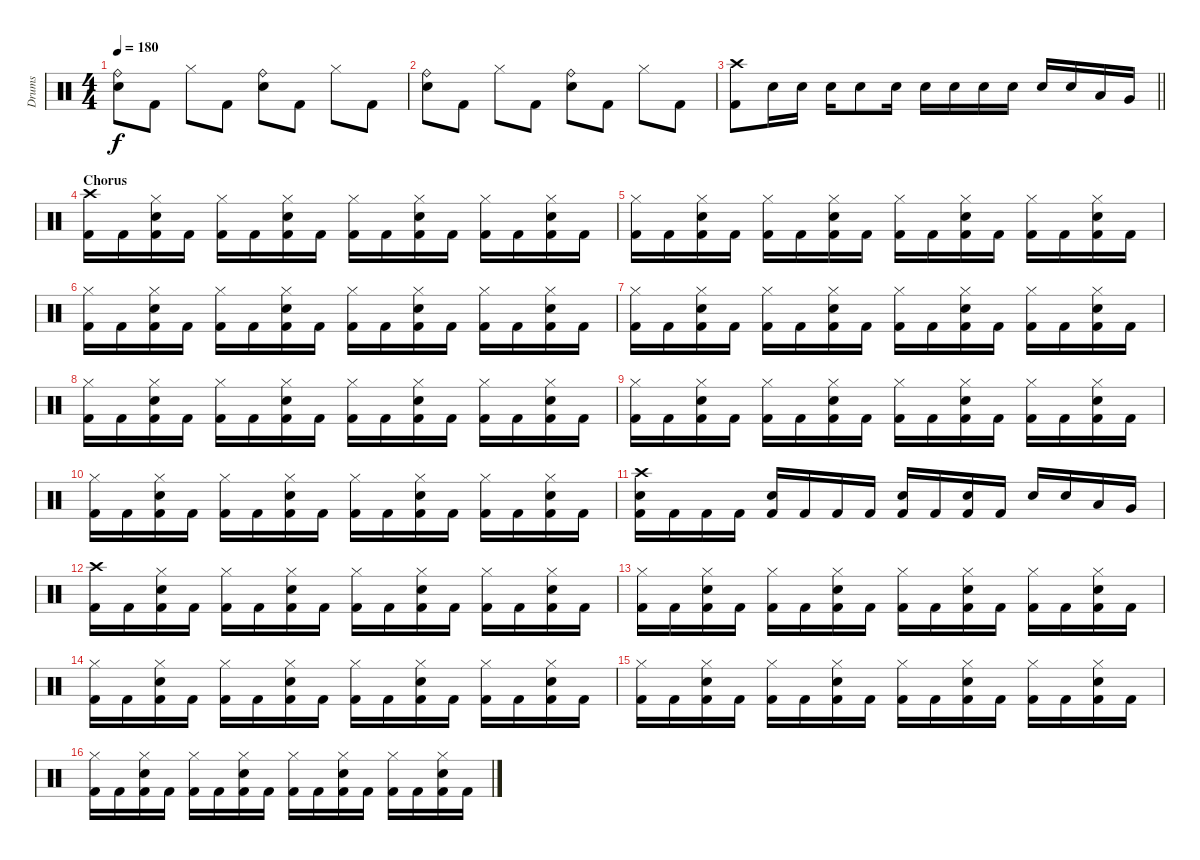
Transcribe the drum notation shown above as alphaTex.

\track ("Drums " "Drums ") {instrument percussion}
\staff {score}
\articulation defaults
\ts (4 4)
\tempo 180
\clef neutral
\ks c
("Ride (bell)" "Electric Snare (hit)").8{dy f} "Kick (hit) 2".8 "Hi-Hat (closed)".8 "Kick (hit) 2".8 ("Ride (bell)" "Electric Snare (hit)").8 "Kick (hit) 2".8 "Hi-Hat (closed)".8 "Kick (hit) 2".8 |
("Ride (bell)" "Electric Snare (hit)").8 "Kick (hit) 2".8 "Hi-Hat (closed)".8 "Kick (hit) 2".8 ("Ride (bell)" "Electric Snare (hit)").8 "Kick (hit) 2".8 "Hi-Hat (closed)".8 "Kick (hit) 2".8 |
\barLineRight lightlight
("Kick (hit) 2" "Crash high (hit)").8 "Electric Snare (hit)".16 "Electric Snare (hit)".16 "Electric Snare (hit)".16 "Electric Snare (hit)".8 "Electric Snare (hit)".16 "Electric Snare (hit)".16 "Electric Snare (hit)".16 "Electric Snare (hit)".16 "Electric Snare (hit)".16 "Electric Snare (hit)".16 "Electric Snare (hit)".16 "Low Tom (hit)".16 "Very Low Tom (hit)".16 |
\section ("" "Chorus")
("Kick (hit) 2" "Crash high (hit)").16 "Kick (hit) 2".16 ("Kick (hit) 2" "Hi-Hat (closed)" "Electric Snare (hit)").16 "Kick (hit) 2".16 ("Kick (hit) 2" "Hi-Hat (closed)").16 "Kick (hit) 2".16 ("Kick (hit) 2" "Hi-Hat (closed)" "Electric Snare (hit)").16 "Kick (hit) 2".16 ("Kick (hit) 2" "Hi-Hat (closed)").16 "Kick (hit) 2".16 ("Kick (hit) 2" "Hi-Hat (closed)" "Electric Snare (hit)").16 "Kick (hit) 2".16 ("Kick (hit) 2" "Hi-Hat (closed)").16 "Kick (hit) 2".16 ("Kick (hit) 2" "Hi-Hat (closed)" "Electric Snare (hit)").16 "Kick (hit) 2".16 |
("Kick (hit) 2" "Hi-Hat (closed)").16 "Kick (hit) 2".16 ("Kick (hit) 2" "Hi-Hat (closed)" "Electric Snare (hit)").16 "Kick (hit) 2".16 ("Kick (hit) 2" "Hi-Hat (closed)").16 "Kick (hit) 2".16 ("Kick (hit) 2" "Hi-Hat (closed)" "Electric Snare (hit)").16 "Kick (hit) 2".16 ("Kick (hit) 2" "Hi-Hat (closed)").16 "Kick (hit) 2".16 ("Kick (hit) 2" "Hi-Hat (closed)" "Electric Snare (hit)").16 "Kick (hit) 2".16 ("Kick (hit) 2" "Hi-Hat (closed)").16 "Kick (hit) 2".16 ("Kick (hit) 2" "Hi-Hat (closed)" "Electric Snare (hit)").16 "Kick (hit) 2".16 |
("Kick (hit) 2" "Hi-Hat (closed)").16 "Kick (hit) 2".16 ("Kick (hit) 2" "Hi-Hat (closed)" "Electric Snare (hit)").16 "Kick (hit) 2".16 ("Kick (hit) 2" "Hi-Hat (closed)").16 "Kick (hit) 2".16 ("Kick (hit) 2" "Hi-Hat (closed)" "Electric Snare (hit)").16 "Kick (hit) 2".16 ("Kick (hit) 2" "Hi-Hat (closed)").16 "Kick (hit) 2".16 ("Kick (hit) 2" "Hi-Hat (closed)" "Electric Snare (hit)").16 "Kick (hit) 2".16 ("Kick (hit) 2" "Hi-Hat (closed)").16 "Kick (hit) 2".16 ("Kick (hit) 2" "Hi-Hat (closed)" "Electric Snare (hit)").16 "Kick (hit) 2".16 |
("Kick (hit) 2" "Hi-Hat (closed)").16 "Kick (hit) 2".16 ("Kick (hit) 2" "Hi-Hat (closed)" "Electric Snare (hit)").16 "Kick (hit) 2".16 ("Kick (hit) 2" "Hi-Hat (closed)").16 "Kick (hit) 2".16 ("Kick (hit) 2" "Hi-Hat (closed)" "Electric Snare (hit)").16 "Kick (hit) 2".16 ("Kick (hit) 2" "Hi-Hat (closed)").16 "Kick (hit) 2".16 ("Kick (hit) 2" "Hi-Hat (closed)" "Electric Snare (hit)").16 "Kick (hit) 2".16 ("Kick (hit) 2" "Hi-Hat (closed)").16 "Kick (hit) 2".16 ("Kick (hit) 2" "Hi-Hat (closed)" "Electric Snare (hit)").16 "Kick (hit) 2".16 |
("Kick (hit) 2" "Hi-Hat (closed)").16 "Kick (hit) 2".16 ("Kick (hit) 2" "Hi-Hat (closed)" "Electric Snare (hit)").16 "Kick (hit) 2".16 ("Kick (hit) 2" "Hi-Hat (closed)").16 "Kick (hit) 2".16 ("Kick (hit) 2" "Hi-Hat (closed)" "Electric Snare (hit)").16 "Kick (hit) 2".16 ("Kick (hit) 2" "Hi-Hat (closed)").16 "Kick (hit) 2".16 ("Kick (hit) 2" "Hi-Hat (closed)" "Electric Snare (hit)").16 "Kick (hit) 2".16 ("Kick (hit) 2" "Hi-Hat (closed)").16 "Kick (hit) 2".16 ("Kick (hit) 2" "Hi-Hat (closed)" "Electric Snare (hit)").16 "Kick (hit) 2".16 |
("Kick (hit) 2" "Hi-Hat (closed)").16 "Kick (hit) 2".16 ("Kick (hit) 2" "Hi-Hat (closed)" "Electric Snare (hit)").16 "Kick (hit) 2".16 ("Kick (hit) 2" "Hi-Hat (closed)").16 "Kick (hit) 2".16 ("Kick (hit) 2" "Hi-Hat (closed)" "Electric Snare (hit)").16 "Kick (hit) 2".16 ("Kick (hit) 2" "Hi-Hat (closed)").16 "Kick (hit) 2".16 ("Kick (hit) 2" "Hi-Hat (closed)" "Electric Snare (hit)").16 "Kick (hit) 2".16 ("Kick (hit) 2" "Hi-Hat (closed)").16 "Kick (hit) 2".16 ("Kick (hit) 2" "Hi-Hat (closed)" "Electric Snare (hit)").16 "Kick (hit) 2".16 |
("Kick (hit) 2" "Hi-Hat (closed)").16 "Kick (hit) 2".16 ("Kick (hit) 2" "Hi-Hat (closed)" "Electric Snare (hit)").16 "Kick (hit) 2".16 ("Kick (hit) 2" "Hi-Hat (closed)").16 "Kick (hit) 2".16 ("Kick (hit) 2" "Hi-Hat (closed)" "Electric Snare (hit)").16 "Kick (hit) 2".16 ("Kick (hit) 2" "Hi-Hat (closed)").16 "Kick (hit) 2".16 ("Kick (hit) 2" "Hi-Hat (closed)" "Electric Snare (hit)").16 "Kick (hit) 2".16 ("Kick (hit) 2" "Hi-Hat (closed)").16 "Kick (hit) 2".16 ("Kick (hit) 2" "Hi-Hat (closed)" "Electric Snare (hit)").16 "Kick (hit) 2".16 |
("Kick (hit) 2" "Crash high (hit)" "Electric Snare (hit)").16 "Kick (hit) 2".16 "Kick (hit) 2".16 "Kick (hit) 2".16 ("Kick (hit) 2" "Electric Snare (hit)").16 "Kick (hit) 2".16 "Kick (hit) 2".16 "Kick (hit) 2".16 ("Kick (hit) 2" "Electric Snare (hit)").16 "Kick (hit) 2".16 ("Kick (hit) 2" "Electric Snare (hit)").16 "Kick (hit) 2".16 "Electric Snare (hit)".16 "Electric Snare (hit)".16 "Low Tom (hit)".16 "Very Low Tom (hit)".16 |
("Kick (hit) 2" "Crash high (hit)").16 "Kick (hit) 2".16 ("Kick (hit) 2" "Hi-Hat (closed)" "Electric Snare (hit)").16 "Kick (hit) 2".16 ("Kick (hit) 2" "Hi-Hat (closed)").16 "Kick (hit) 2".16 ("Kick (hit) 2" "Hi-Hat (closed)" "Electric Snare (hit)").16 "Kick (hit) 2".16 ("Kick (hit) 2" "Hi-Hat (closed)").16 "Kick (hit) 2".16 ("Kick (hit) 2" "Hi-Hat (closed)" "Electric Snare (hit)").16 "Kick (hit) 2".16 ("Kick (hit) 2" "Hi-Hat (closed)").16 "Kick (hit) 2".16 ("Kick (hit) 2" "Hi-Hat (closed)" "Electric Snare (hit)").16 "Kick (hit) 2".16 |
("Kick (hit) 2" "Hi-Hat (closed)").16 "Kick (hit) 2".16 ("Kick (hit) 2" "Hi-Hat (closed)" "Electric Snare (hit)").16 "Kick (hit) 2".16 ("Kick (hit) 2" "Hi-Hat (closed)").16 "Kick (hit) 2".16 ("Kick (hit) 2" "Hi-Hat (closed)" "Electric Snare (hit)").16 "Kick (hit) 2".16 ("Kick (hit) 2" "Hi-Hat (closed)").16 "Kick (hit) 2".16 ("Kick (hit) 2" "Hi-Hat (closed)" "Electric Snare (hit)").16 "Kick (hit) 2".16 ("Kick (hit) 2" "Hi-Hat (closed)").16 "Kick (hit) 2".16 ("Kick (hit) 2" "Hi-Hat (closed)" "Electric Snare (hit)").16 "Kick (hit) 2".16 |
("Kick (hit) 2" "Hi-Hat (closed)").16 "Kick (hit) 2".16 ("Kick (hit) 2" "Hi-Hat (closed)" "Electric Snare (hit)").16 "Kick (hit) 2".16 ("Kick (hit) 2" "Hi-Hat (closed)").16 "Kick (hit) 2".16 ("Kick (hit) 2" "Hi-Hat (closed)" "Electric Snare (hit)").16 "Kick (hit) 2".16 ("Kick (hit) 2" "Hi-Hat (closed)").16 "Kick (hit) 2".16 ("Kick (hit) 2" "Hi-Hat (closed)" "Electric Snare (hit)").16 "Kick (hit) 2".16 ("Kick (hit) 2" "Hi-Hat (closed)").16 "Kick (hit) 2".16 ("Kick (hit) 2" "Hi-Hat (closed)" "Electric Snare (hit)").16 "Kick (hit) 2".16 |
("Kick (hit) 2" "Hi-Hat (closed)").16 "Kick (hit) 2".16 ("Kick (hit) 2" "Hi-Hat (closed)" "Electric Snare (hit)").16 "Kick (hit) 2".16 ("Kick (hit) 2" "Hi-Hat (closed)").16 "Kick (hit) 2".16 ("Kick (hit) 2" "Hi-Hat (closed)" "Electric Snare (hit)").16 "Kick (hit) 2".16 ("Kick (hit) 2" "Hi-Hat (closed)").16 "Kick (hit) 2".16 ("Kick (hit) 2" "Hi-Hat (closed)" "Electric Snare (hit)").16 "Kick (hit) 2".16 ("Kick (hit) 2" "Hi-Hat (closed)").16 "Kick (hit) 2".16 ("Kick (hit) 2" "Hi-Hat (closed)" "Electric Snare (hit)").16 "Kick (hit) 2".16 |
("Kick (hit) 2" "Hi-Hat (closed)").16 "Kick (hit) 2".16 ("Kick (hit) 2" "Hi-Hat (closed)" "Electric Snare (hit)").16 "Kick (hit) 2".16 ("Kick (hit) 2" "Hi-Hat (closed)").16 "Kick (hit) 2".16 ("Kick (hit) 2" "Hi-Hat (closed)" "Electric Snare (hit)").16 "Kick (hit) 2".16 ("Kick (hit) 2" "Hi-Hat (closed)").16 "Kick (hit) 2".16 ("Kick (hit) 2" "Hi-Hat (closed)" "Electric Snare (hit)").16 "Kick (hit) 2".16 ("Kick (hit) 2" "Hi-Hat (closed)").16 "Kick (hit) 2".16 ("Kick (hit) 2" "Hi-Hat (closed)" "Electric Snare (hit)").16 "Kick (hit) 2".16
